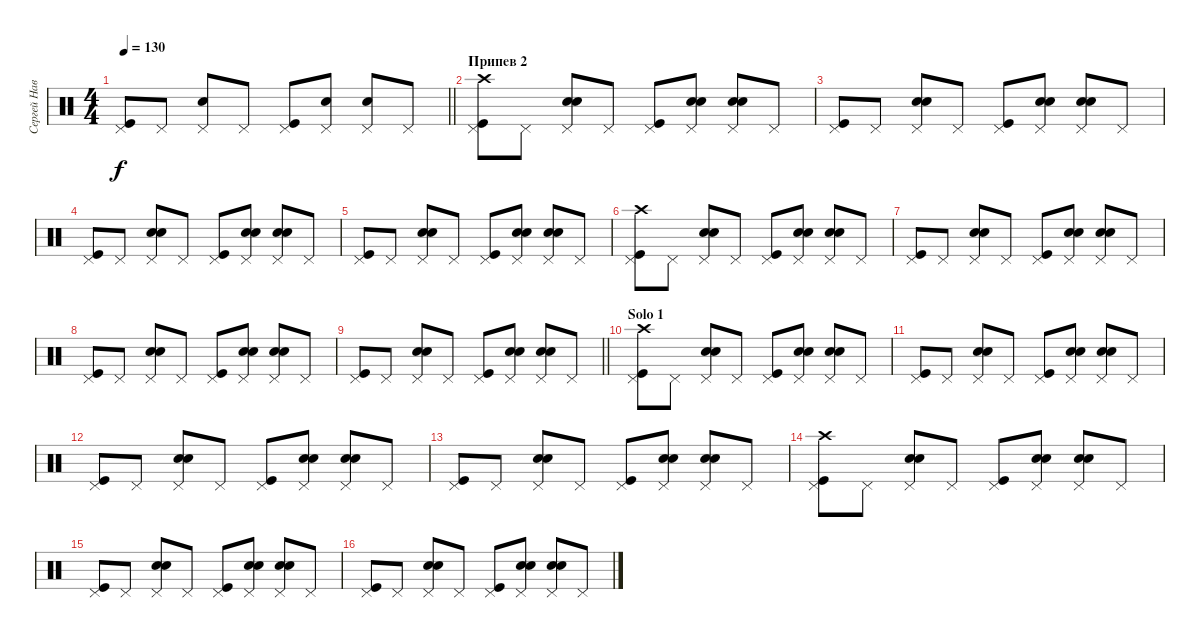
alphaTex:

\track ("Сергей Наветный" "Сергей Нав") {instrument percussion}
\staff {score}
\articulation defaults
\ts (4 4)
\tempo 130
\clef neutral
\barLineRight lightlight
\ks c
("Pedal Hi-Hat (hit)" "Kick (hit)").8{dy f} "Pedal Hi-Hat (hit)".8 ("Pedal Hi-Hat (hit)" "Snare (hit) 2").8 "Pedal Hi-Hat (hit)".8 ("Kick (hit)" "Pedal Hi-Hat (hit)").8 ("Snare (hit) 2" "Pedal Hi-Hat (hit)").8 ("Snare (hit) 2" "Pedal Hi-Hat (hit)").8 "Pedal Hi-Hat (hit)".8 |
\section ("" "Припев 2")
("Crash high (hit)" "Kick (hit)" "Pedal Hi-Hat (hit)").8 "Pedal Hi-Hat (hit)".8 ("Hand Clap (hit)" "Snare (hit) 2" "Pedal Hi-Hat (hit)").8 "Pedal Hi-Hat (hit)".8 ("Kick (hit)" "Pedal Hi-Hat (hit)").8 ("Hand Clap (hit)" "Snare (hit) 2" "Pedal Hi-Hat (hit)").8 ("Hand Clap (hit)" "Snare (hit) 2" "Pedal Hi-Hat (hit)").8 "Pedal Hi-Hat (hit)".8 |
("Kick (hit)" "Pedal Hi-Hat (hit)").8 "Pedal Hi-Hat (hit)".8 ("Hand Clap (hit)" "Snare (hit) 2" "Pedal Hi-Hat (hit)").8 "Pedal Hi-Hat (hit)".8 ("Kick (hit)" "Pedal Hi-Hat (hit)").8 ("Hand Clap (hit)" "Snare (hit) 2" "Pedal Hi-Hat (hit)").8 ("Hand Clap (hit)" "Snare (hit) 2" "Pedal Hi-Hat (hit)").8 "Pedal Hi-Hat (hit)".8 |
("Kick (hit)" "Pedal Hi-Hat (hit)").8 "Pedal Hi-Hat (hit)".8 ("Hand Clap (hit)" "Snare (hit) 2" "Pedal Hi-Hat (hit)").8 "Pedal Hi-Hat (hit)".8 ("Kick (hit)" "Pedal Hi-Hat (hit)").8 ("Hand Clap (hit)" "Snare (hit) 2" "Pedal Hi-Hat (hit)").8 ("Hand Clap (hit)" "Snare (hit) 2" "Pedal Hi-Hat (hit)").8 "Pedal Hi-Hat (hit)".8 |
("Kick (hit)" "Pedal Hi-Hat (hit)").8 "Pedal Hi-Hat (hit)".8 ("Hand Clap (hit)" "Snare (hit) 2" "Pedal Hi-Hat (hit)").8 "Pedal Hi-Hat (hit)".8 ("Kick (hit)" "Pedal Hi-Hat (hit)").8 ("Hand Clap (hit)" "Snare (hit) 2" "Pedal Hi-Hat (hit)").8 ("Hand Clap (hit)" "Snare (hit) 2" "Pedal Hi-Hat (hit)").8 "Pedal Hi-Hat (hit)".8 |
("Crash high (hit)" "Kick (hit)" "Pedal Hi-Hat (hit)").8 "Pedal Hi-Hat (hit)".8 ("Hand Clap (hit)" "Snare (hit) 2" "Pedal Hi-Hat (hit)").8 "Pedal Hi-Hat (hit)".8 ("Kick (hit)" "Pedal Hi-Hat (hit)").8 ("Hand Clap (hit)" "Snare (hit) 2" "Pedal Hi-Hat (hit)").8 ("Hand Clap (hit)" "Snare (hit) 2" "Pedal Hi-Hat (hit)").8 "Pedal Hi-Hat (hit)".8 |
("Kick (hit)" "Pedal Hi-Hat (hit)").8 "Pedal Hi-Hat (hit)".8 ("Hand Clap (hit)" "Snare (hit) 2" "Pedal Hi-Hat (hit)").8 "Pedal Hi-Hat (hit)".8 ("Kick (hit)" "Pedal Hi-Hat (hit)").8 ("Hand Clap (hit)" "Snare (hit) 2" "Pedal Hi-Hat (hit)").8 ("Hand Clap (hit)" "Snare (hit) 2" "Pedal Hi-Hat (hit)").8 "Pedal Hi-Hat (hit)".8 |
("Kick (hit)" "Pedal Hi-Hat (hit)").8 "Pedal Hi-Hat (hit)".8 ("Hand Clap (hit)" "Snare (hit) 2" "Pedal Hi-Hat (hit)").8 "Pedal Hi-Hat (hit)".8 ("Kick (hit)" "Pedal Hi-Hat (hit)").8 ("Hand Clap (hit)" "Snare (hit) 2" "Pedal Hi-Hat (hit)").8 ("Hand Clap (hit)" "Snare (hit) 2" "Pedal Hi-Hat (hit)").8 "Pedal Hi-Hat (hit)".8 |
\barLineRight lightlight
("Kick (hit)" "Pedal Hi-Hat (hit)").8 "Pedal Hi-Hat (hit)".8 ("Hand Clap (hit)" "Snare (hit) 2" "Pedal Hi-Hat (hit)").8 "Pedal Hi-Hat (hit)".8 ("Kick (hit)" "Pedal Hi-Hat (hit)").8 ("Hand Clap (hit)" "Snare (hit) 2" "Pedal Hi-Hat (hit)").8 ("Hand Clap (hit)" "Snare (hit) 2" "Pedal Hi-Hat (hit)").8 "Pedal Hi-Hat (hit)".8 |
\section ("" "Solo 1")
("Crash high (hit)" "Kick (hit)" "Pedal Hi-Hat (hit)").8 "Pedal Hi-Hat (hit)".8 ("Hand Clap (hit)" "Snare (hit) 2" "Pedal Hi-Hat (hit)").8 "Pedal Hi-Hat (hit)".8 ("Kick (hit)" "Pedal Hi-Hat (hit)").8 ("Hand Clap (hit)" "Snare (hit) 2" "Pedal Hi-Hat (hit)").8 ("Hand Clap (hit)" "Snare (hit) 2" "Pedal Hi-Hat (hit)").8 "Pedal Hi-Hat (hit)".8 |
("Kick (hit)" "Pedal Hi-Hat (hit)").8 "Pedal Hi-Hat (hit)".8 ("Hand Clap (hit)" "Snare (hit) 2" "Pedal Hi-Hat (hit)").8 "Pedal Hi-Hat (hit)".8 ("Kick (hit)" "Pedal Hi-Hat (hit)").8 ("Hand Clap (hit)" "Snare (hit) 2" "Pedal Hi-Hat (hit)").8 ("Hand Clap (hit)" "Snare (hit) 2" "Pedal Hi-Hat (hit)").8 "Pedal Hi-Hat (hit)".8 |
("Kick (hit)" "Pedal Hi-Hat (hit)").8 "Pedal Hi-Hat (hit)".8 ("Hand Clap (hit)" "Snare (hit) 2" "Pedal Hi-Hat (hit)").8 "Pedal Hi-Hat (hit)".8 ("Kick (hit)" "Pedal Hi-Hat (hit)").8 ("Hand Clap (hit)" "Snare (hit) 2" "Pedal Hi-Hat (hit)").8 ("Hand Clap (hit)" "Snare (hit) 2" "Pedal Hi-Hat (hit)").8 "Pedal Hi-Hat (hit)".8 |
("Kick (hit)" "Pedal Hi-Hat (hit)").8 "Pedal Hi-Hat (hit)".8 ("Hand Clap (hit)" "Snare (hit) 2" "Pedal Hi-Hat (hit)").8 "Pedal Hi-Hat (hit)".8 ("Kick (hit)" "Pedal Hi-Hat (hit)").8 ("Hand Clap (hit)" "Snare (hit) 2" "Pedal Hi-Hat (hit)").8 ("Hand Clap (hit)" "Snare (hit) 2" "Pedal Hi-Hat (hit)").8 "Pedal Hi-Hat (hit)".8 |
("Crash high (hit)" "Kick (hit)" "Pedal Hi-Hat (hit)").8 "Pedal Hi-Hat (hit)".8 ("Hand Clap (hit)" "Snare (hit) 2" "Pedal Hi-Hat (hit)").8 "Pedal Hi-Hat (hit)".8 ("Kick (hit)" "Pedal Hi-Hat (hit)").8 ("Hand Clap (hit)" "Snare (hit) 2" "Pedal Hi-Hat (hit)").8 ("Hand Clap (hit)" "Snare (hit) 2" "Pedal Hi-Hat (hit)").8 "Pedal Hi-Hat (hit)".8 |
("Kick (hit)" "Pedal Hi-Hat (hit)").8 "Pedal Hi-Hat (hit)".8 ("Hand Clap (hit)" "Snare (hit) 2" "Pedal Hi-Hat (hit)").8 "Pedal Hi-Hat (hit)".8 ("Kick (hit)" "Pedal Hi-Hat (hit)").8 ("Hand Clap (hit)" "Snare (hit) 2" "Pedal Hi-Hat (hit)").8 ("Hand Clap (hit)" "Snare (hit) 2" "Pedal Hi-Hat (hit)").8 "Pedal Hi-Hat (hit)".8 |
("Kick (hit)" "Pedal Hi-Hat (hit)").8 "Pedal Hi-Hat (hit)".8 ("Hand Clap (hit)" "Snare (hit) 2" "Pedal Hi-Hat (hit)").8 "Pedal Hi-Hat (hit)".8 ("Kick (hit)" "Pedal Hi-Hat (hit)").8 ("Hand Clap (hit)" "Snare (hit) 2" "Pedal Hi-Hat (hit)").8 ("Hand Clap (hit)" "Snare (hit) 2" "Pedal Hi-Hat (hit)").8 "Pedal Hi-Hat (hit)".8
